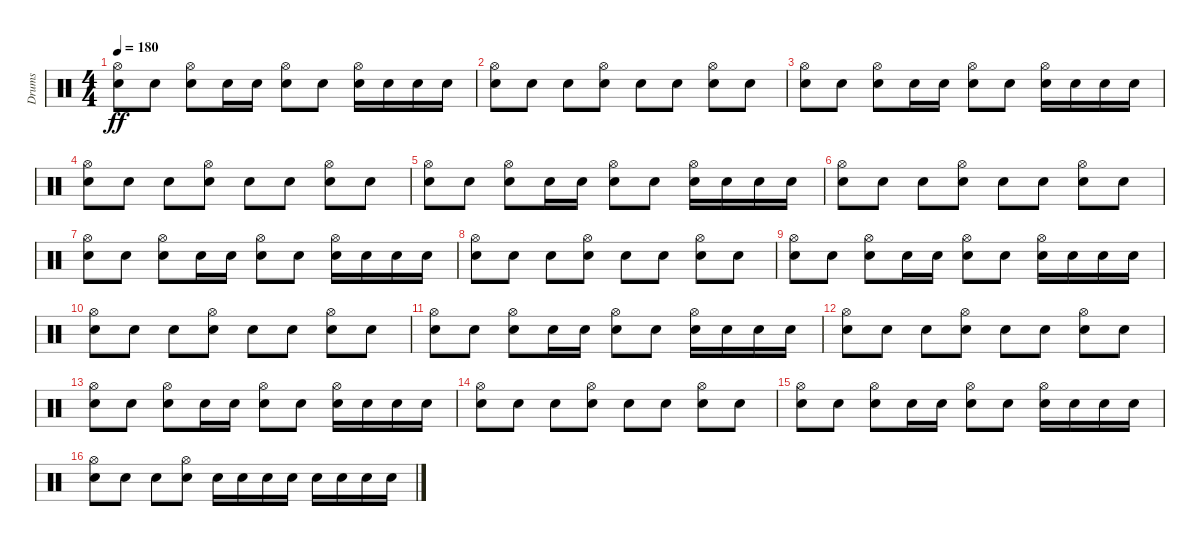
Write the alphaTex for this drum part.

\track ("Drums" "Drums") {instrument percussion}
\staff {score}
\articulation defaults
\ts (4 4)
\tempo 180
\clef neutral
\ks c
("Hi-Hat (open)" "Electric Snare (hit)").8{dy ff} "Snare (hit) 2".8 ("Hi-Hat (open)" "Electric Snare (hit)").8 "Snare (hit) 2".16 "Snare (hit) 2".16 ("Electric Snare (hit)" "Hi-Hat (open)").8 "Snare (hit) 2".8 ("Snare (hit) 2" "Hi-Hat (open)").16 "Snare (hit) 2".16 "Snare (hit) 2".16 "Snare (hit) 2".16 |
("Hi-Hat (open)" "Snare (hit) 2").8 "Snare (hit) 2".8 "Snare (hit) 2".8 ("Hi-Hat (open)" "Snare (hit) 2").8 "Snare (hit) 2".8 "Snare (hit) 2".8 ("Hi-Hat (open)" "Snare (hit) 2").8 "Snare (hit) 2".8 |
("Hi-Hat (open)" "Electric Snare (hit)").8 "Snare (hit) 2".8 ("Hi-Hat (open)" "Electric Snare (hit)").8 "Snare (hit) 2".16 "Snare (hit) 2".16 ("Electric Snare (hit)" "Hi-Hat (open)").8 "Snare (hit) 2".8 ("Snare (hit) 2" "Hi-Hat (open)").16 "Snare (hit) 2".16 "Snare (hit) 2".16 "Snare (hit) 2".16 |
("Hi-Hat (open)" "Snare (hit) 2").8 "Snare (hit) 2".8 "Snare (hit) 2".8 ("Hi-Hat (open)" "Snare (hit) 2").8 "Snare (hit) 2".8 "Snare (hit) 2".8 ("Hi-Hat (open)" "Snare (hit) 2").8 "Snare (hit) 2".8 |
("Hi-Hat (open)" "Electric Snare (hit)").8 "Snare (hit) 2".8 ("Hi-Hat (open)" "Electric Snare (hit)").8 "Snare (hit) 2".16 "Snare (hit) 2".16 ("Electric Snare (hit)" "Hi-Hat (open)").8 "Snare (hit) 2".8 ("Snare (hit) 2" "Hi-Hat (open)").16 "Snare (hit) 2".16 "Snare (hit) 2".16 "Snare (hit) 2".16 |
("Hi-Hat (open)" "Snare (hit) 2").8 "Snare (hit) 2".8 "Snare (hit) 2".8 ("Hi-Hat (open)" "Snare (hit) 2").8 "Snare (hit) 2".8 "Snare (hit) 2".8 ("Hi-Hat (open)" "Snare (hit) 2").8 "Snare (hit) 2".8 |
("Hi-Hat (open)" "Electric Snare (hit)").8 "Snare (hit) 2".8 ("Hi-Hat (open)" "Electric Snare (hit)").8 "Snare (hit) 2".16 "Snare (hit) 2".16 ("Electric Snare (hit)" "Hi-Hat (open)").8 "Snare (hit) 2".8 ("Snare (hit) 2" "Hi-Hat (open)").16 "Snare (hit) 2".16 "Snare (hit) 2".16 "Snare (hit) 2".16 |
("Hi-Hat (open)" "Snare (hit) 2").8 "Snare (hit) 2".8 "Snare (hit) 2".8 ("Hi-Hat (open)" "Snare (hit) 2").8 "Snare (hit) 2".8 "Snare (hit) 2".8 ("Hi-Hat (open)" "Snare (hit) 2").8 "Snare (hit) 2".8 |
("Hi-Hat (open)" "Electric Snare (hit)").8 "Snare (hit) 2".8 ("Hi-Hat (open)" "Electric Snare (hit)").8 "Snare (hit) 2".16 "Snare (hit) 2".16 ("Electric Snare (hit)" "Hi-Hat (open)").8 "Snare (hit) 2".8 ("Snare (hit) 2" "Hi-Hat (open)").16 "Snare (hit) 2".16 "Snare (hit) 2".16 "Snare (hit) 2".16 |
("Hi-Hat (open)" "Snare (hit) 2").8 "Snare (hit) 2".8 "Snare (hit) 2".8 ("Hi-Hat (open)" "Snare (hit) 2").8 "Snare (hit) 2".8 "Snare (hit) 2".8 ("Hi-Hat (open)" "Snare (hit) 2").8 "Snare (hit) 2".8 |
("Hi-Hat (open)" "Electric Snare (hit)").8 "Snare (hit) 2".8 ("Hi-Hat (open)" "Electric Snare (hit)").8 "Snare (hit) 2".16 "Snare (hit) 2".16 ("Electric Snare (hit)" "Hi-Hat (open)").8 "Snare (hit) 2".8 ("Snare (hit) 2" "Hi-Hat (open)").16 "Snare (hit) 2".16 "Snare (hit) 2".16 "Snare (hit) 2".16 |
("Hi-Hat (open)" "Snare (hit) 2").8 "Snare (hit) 2".8 "Snare (hit) 2".8 ("Hi-Hat (open)" "Snare (hit) 2").8 "Snare (hit) 2".8 "Snare (hit) 2".8 ("Hi-Hat (open)" "Snare (hit) 2").8 "Snare (hit) 2".8 |
("Hi-Hat (open)" "Electric Snare (hit)").8 "Snare (hit) 2".8 ("Hi-Hat (open)" "Electric Snare (hit)").8 "Snare (hit) 2".16 "Snare (hit) 2".16 ("Electric Snare (hit)" "Hi-Hat (open)").8 "Snare (hit) 2".8 ("Snare (hit) 2" "Hi-Hat (open)").16 "Snare (hit) 2".16 "Snare (hit) 2".16 "Snare (hit) 2".16 |
("Hi-Hat (open)" "Snare (hit) 2").8 "Snare (hit) 2".8 "Snare (hit) 2".8 ("Hi-Hat (open)" "Snare (hit) 2").8 "Snare (hit) 2".8 "Snare (hit) 2".8 ("Hi-Hat (open)" "Snare (hit) 2").8 "Snare (hit) 2".8 |
("Hi-Hat (open)" "Electric Snare (hit)").8 "Snare (hit) 2".8 ("Hi-Hat (open)" "Electric Snare (hit)").8 "Snare (hit) 2".16 "Snare (hit) 2".16 ("Electric Snare (hit)" "Hi-Hat (open)").8 "Snare (hit) 2".8 ("Snare (hit) 2" "Hi-Hat (open)").16 "Snare (hit) 2".16 "Snare (hit) 2".16 "Snare (hit) 2".16 |
("Hi-Hat (open)" "Snare (hit) 2").8 "Snare (hit) 2".8 "Snare (hit) 2".8 ("Hi-Hat (open)" "Snare (hit) 2").8 "Snare (hit) 2".16 "Snare (hit) 2".16 "Snare (hit) 2".16 "Snare (hit) 2".16 "Snare (hit) 2".16 "Snare (hit) 2".16 "Snare (hit) 2".16 "Snare (hit) 2".16
